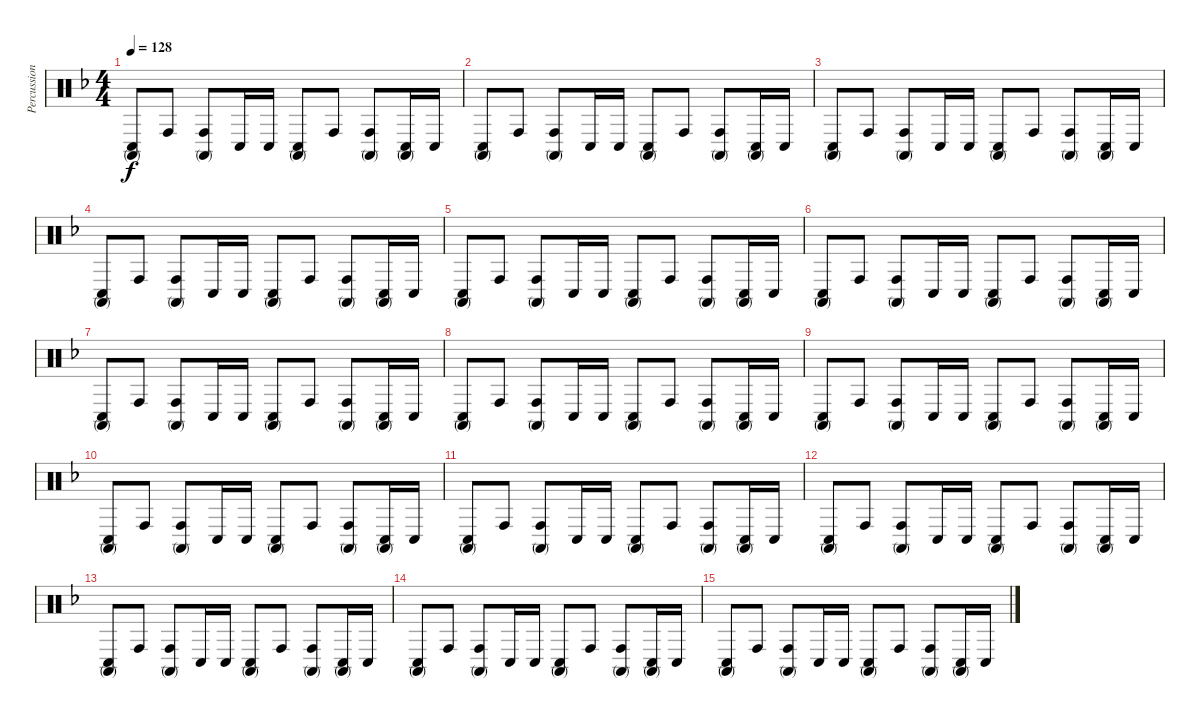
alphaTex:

\track ("Percussion" "Percussion") {instrument percussion}
\staff {score}
\articulation defaults
\ts (4 4)
\tempo 128
\clef neutral
\ks f
("Conga high (mute)" "Conga low (hit)").8{dy f} "Conga high (hit)".8 ("Conga high (mute)" "Conga high (hit)").8 "Conga low (hit)".16 "Conga low (hit)".16 ("Conga high (mute)" "Conga low (hit)").8 "Conga high (hit)".8 ("Conga high (mute)" "Conga high (hit)").8 ("Conga high (mute)" "Conga low (hit)").16 "Conga low (hit)".16 |
("Conga high (mute)" "Conga low (hit)").8 "Conga high (hit)".8 ("Conga high (mute)" "Conga high (hit)").8 "Conga low (hit)".16 "Conga low (hit)".16 ("Conga high (mute)" "Conga low (hit)").8 "Conga high (hit)".8 ("Conga high (mute)" "Conga high (hit)").8 ("Conga high (mute)" "Conga low (hit)").16 "Conga low (hit)".16 |
("Conga high (mute)" "Conga low (hit)").8 "Conga high (hit)".8 ("Conga high (mute)" "Conga high (hit)").8 "Conga low (hit)".16 "Conga low (hit)".16 ("Conga high (mute)" "Conga low (hit)").8 "Conga high (hit)".8 ("Conga high (mute)" "Conga high (hit)").8 ("Conga high (mute)" "Conga low (hit)").16 "Conga low (hit)".16 |
("Conga high (mute)" "Conga low (hit)").8 "Conga high (hit)".8 ("Conga high (mute)" "Conga high (hit)").8 "Conga low (hit)".16 "Conga low (hit)".16 ("Conga high (mute)" "Conga low (hit)").8 "Conga high (hit)".8 ("Conga high (mute)" "Conga high (hit)").8 ("Conga high (mute)" "Conga low (hit)").16 "Conga low (hit)".16 |
("Conga high (mute)" "Conga low (hit)").8 "Conga high (hit)".8 ("Conga high (mute)" "Conga high (hit)").8 "Conga low (hit)".16 "Conga low (hit)".16 ("Conga high (mute)" "Conga low (hit)").8 "Conga high (hit)".8 ("Conga high (mute)" "Conga high (hit)").8 ("Conga high (mute)" "Conga low (hit)").16 "Conga low (hit)".16 |
("Conga high (mute)" "Conga low (hit)").8 "Conga high (hit)".8 ("Conga high (mute)" "Conga high (hit)").8 "Conga low (hit)".16 "Conga low (hit)".16 ("Conga high (mute)" "Conga low (hit)").8 "Conga high (hit)".8 ("Conga high (mute)" "Conga high (hit)").8 ("Conga high (mute)" "Conga low (hit)").16 "Conga low (hit)".16 |
("Conga high (mute)" "Conga low (hit)").8 "Conga high (hit)".8 ("Conga high (mute)" "Conga high (hit)").8 "Conga low (hit)".16 "Conga low (hit)".16 ("Conga high (mute)" "Conga low (hit)").8 "Conga high (hit)".8 ("Conga high (mute)" "Conga high (hit)").8 ("Conga high (mute)" "Conga low (hit)").16 "Conga low (hit)".16 |
("Conga high (mute)" "Conga low (hit)").8 "Conga high (hit)".8 ("Conga high (mute)" "Conga high (hit)").8 "Conga low (hit)".16 "Conga low (hit)".16 ("Conga high (mute)" "Conga low (hit)").8 "Conga high (hit)".8 ("Conga high (mute)" "Conga high (hit)").8 ("Conga high (mute)" "Conga low (hit)").16 "Conga low (hit)".16 |
("Conga high (mute)" "Conga low (hit)").8 "Conga high (hit)".8 ("Conga high (mute)" "Conga high (hit)").8 "Conga low (hit)".16 "Conga low (hit)".16 ("Conga high (mute)" "Conga low (hit)").8 "Conga high (hit)".8 ("Conga high (mute)" "Conga high (hit)").8 ("Conga high (mute)" "Conga low (hit)").16 "Conga low (hit)".16 |
("Conga high (mute)" "Conga low (hit)").8 "Conga high (hit)".8 ("Conga high (mute)" "Conga high (hit)").8 "Conga low (hit)".16 "Conga low (hit)".16 ("Conga high (mute)" "Conga low (hit)").8 "Conga high (hit)".8 ("Conga high (mute)" "Conga high (hit)").8 ("Conga high (mute)" "Conga low (hit)").16 "Conga low (hit)".16 |
("Conga high (mute)" "Conga low (hit)").8 "Conga high (hit)".8 ("Conga high (mute)" "Conga high (hit)").8 "Conga low (hit)".16 "Conga low (hit)".16 ("Conga high (mute)" "Conga low (hit)").8 "Conga high (hit)".8 ("Conga high (mute)" "Conga high (hit)").8 ("Conga high (mute)" "Conga low (hit)").16 "Conga low (hit)".16 |
("Conga high (mute)" "Conga low (hit)").8 "Conga high (hit)".8 ("Conga high (mute)" "Conga high (hit)").8 "Conga low (hit)".16 "Conga low (hit)".16 ("Conga high (mute)" "Conga low (hit)").8 "Conga high (hit)".8 ("Conga high (mute)" "Conga high (hit)").8 ("Conga high (mute)" "Conga low (hit)").16 "Conga low (hit)".16 |
("Conga high (mute)" "Conga low (hit)").8 "Conga high (hit)".8 ("Conga high (mute)" "Conga high (hit)").8 "Conga low (hit)".16 "Conga low (hit)".16 ("Conga high (mute)" "Conga low (hit)").8 "Conga high (hit)".8 ("Conga high (mute)" "Conga high (hit)").8 ("Conga high (mute)" "Conga low (hit)").16 "Conga low (hit)".16 |
("Conga high (mute)" "Conga low (hit)").8 "Conga high (hit)".8 ("Conga high (mute)" "Conga high (hit)").8 "Conga low (hit)".16 "Conga low (hit)".16 ("Conga high (mute)" "Conga low (hit)").8 "Conga high (hit)".8 ("Conga high (mute)" "Conga high (hit)").8 ("Conga high (mute)" "Conga low (hit)").16 "Conga low (hit)".16 |
("Conga high (mute)" "Conga low (hit)").8 "Conga high (hit)".8 ("Conga high (mute)" "Conga high (hit)").8 "Conga low (hit)".16 "Conga low (hit)".16 ("Conga high (mute)" "Conga low (hit)").8 "Conga high (hit)".8 ("Conga high (mute)" "Conga high (hit)").8 ("Conga high (mute)" "Conga low (hit)").16 "Conga low (hit)".16
